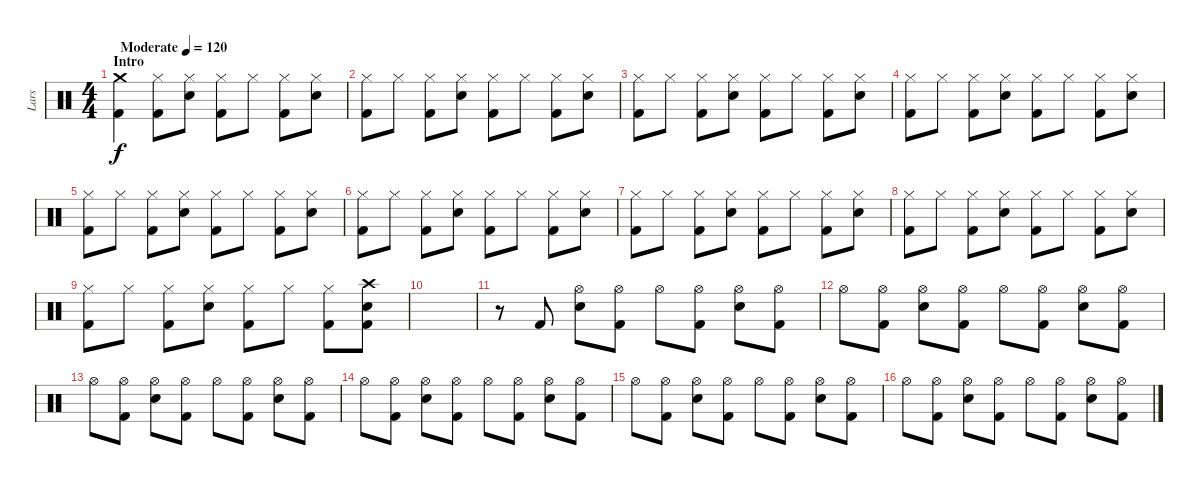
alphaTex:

\track ("Lars" "Lars") {instrument percussion}
\staff {score}
\articulation defaults
\ts (4 4)
\section ("" "Intro")
\tempo (120 "Moderate")
\clef neutral
\ks c
("Kick (hit) 2" "Crash medium (hit)").4{dy f} ("Kick (hit) 2" "Hi-Hat (closed)").8 ("Hi-Hat (closed)" "Electric Snare (hit)").8 ("Kick (hit) 2" "Hi-Hat (closed)").8 "Hi-Hat (closed)".8 ("Kick (hit) 2" "Hi-Hat (closed)").8 ("Electric Snare (hit)" "Hi-Hat (closed)").8 |
("Kick (hit) 2" "Hi-Hat (closed)").8 "Hi-Hat (closed)".8 ("Kick (hit) 2" "Hi-Hat (closed)").8 ("Electric Snare (hit)" "Hi-Hat (closed)").8 ("Kick (hit) 2" "Hi-Hat (closed)").8 "Hi-Hat (closed)".8 ("Kick (hit) 2" "Hi-Hat (closed)").8 ("Electric Snare (hit)" "Hi-Hat (closed)").8 |
("Kick (hit) 2" "Hi-Hat (closed)").8 "Hi-Hat (closed)".8 ("Kick (hit) 2" "Hi-Hat (closed)").8 ("Electric Snare (hit)" "Hi-Hat (closed)").8 ("Kick (hit) 2" "Hi-Hat (closed)").8 "Hi-Hat (closed)".8 ("Kick (hit) 2" "Hi-Hat (closed)").8 ("Electric Snare (hit)" "Hi-Hat (closed)").8 |
("Kick (hit) 2" "Hi-Hat (closed)").8 "Hi-Hat (closed)".8 ("Kick (hit) 2" "Hi-Hat (closed)").8 ("Electric Snare (hit)" "Hi-Hat (closed)").8 ("Kick (hit) 2" "Hi-Hat (closed)").8 "Hi-Hat (closed)".8 ("Kick (hit) 2" "Hi-Hat (closed)").8 ("Electric Snare (hit)" "Hi-Hat (closed)").8 |
("Kick (hit) 2" "Hi-Hat (closed)").8 "Hi-Hat (closed)".8 ("Kick (hit) 2" "Hi-Hat (closed)").8 ("Electric Snare (hit)" "Hi-Hat (closed)").8 ("Kick (hit) 2" "Hi-Hat (closed)").8 "Hi-Hat (closed)".8 ("Kick (hit) 2" "Hi-Hat (closed)").8 ("Electric Snare (hit)" "Hi-Hat (closed)").8 |
("Kick (hit) 2" "Hi-Hat (closed)").8 "Hi-Hat (closed)".8 ("Kick (hit) 2" "Hi-Hat (closed)").8 ("Electric Snare (hit)" "Hi-Hat (closed)").8 ("Kick (hit) 2" "Hi-Hat (closed)").8 "Hi-Hat (closed)".8 ("Kick (hit) 2" "Hi-Hat (closed)").8 ("Electric Snare (hit)" "Hi-Hat (closed)").8 |
("Kick (hit) 2" "Hi-Hat (closed)").8 "Hi-Hat (closed)".8 ("Kick (hit) 2" "Hi-Hat (closed)").8 ("Electric Snare (hit)" "Hi-Hat (closed)").8 ("Kick (hit) 2" "Hi-Hat (closed)").8 "Hi-Hat (closed)".8 ("Kick (hit) 2" "Hi-Hat (closed)").8 ("Electric Snare (hit)" "Hi-Hat (closed)").8 |
("Kick (hit) 2" "Hi-Hat (closed)").8 "Hi-Hat (closed)".8 ("Kick (hit) 2" "Hi-Hat (closed)").8 ("Electric Snare (hit)" "Hi-Hat (closed)").8 ("Kick (hit) 2" "Hi-Hat (closed)").8 "Hi-Hat (closed)".8 ("Kick (hit) 2" "Hi-Hat (closed)").8 ("Electric Snare (hit)" "Hi-Hat (closed)").8 |
("Kick (hit) 2" "Hi-Hat (closed)").8 "Hi-Hat (closed)".8 ("Kick (hit) 2" "Hi-Hat (closed)").8 ("Electric Snare (hit)" "Hi-Hat (closed)").8 ("Kick (hit) 2" "Hi-Hat (closed)").8 "Hi-Hat (closed)".8 ("Kick (hit) 2" "Hi-Hat (closed)").8 ("Kick (hit) 2" "Electric Snare (hit)" "Crash high (hit)").8 |
|
r.8 "Kick (hit) 2".8 ("Snare (hit) 2" "Hi-Hat (open)").8 ("Kick (hit) 2" "Hi-Hat (open)").8 "Hi-Hat (open)".8 ("Kick (hit) 2" "Hi-Hat (open)").8 ("Snare (hit) 2" "Hi-Hat (open)").8 ("Kick (hit) 2" "Hi-Hat (open)").8 |
"Hi-Hat (open)".8 ("Kick (hit) 2" "Hi-Hat (open)").8 ("Snare (hit) 2" "Hi-Hat (open)").8 ("Kick (hit) 2" "Hi-Hat (open)").8 "Hi-Hat (open)".8 ("Kick (hit) 2" "Hi-Hat (open)").8 ("Snare (hit) 2" "Hi-Hat (open)").8 ("Kick (hit) 2" "Hi-Hat (open)").8 |
"Hi-Hat (open)".8 ("Kick (hit) 2" "Hi-Hat (open)").8 ("Snare (hit) 2" "Hi-Hat (open)").8 ("Kick (hit) 2" "Hi-Hat (open)").8 "Hi-Hat (open)".8 ("Kick (hit) 2" "Hi-Hat (open)").8 ("Snare (hit) 2" "Hi-Hat (open)").8 ("Kick (hit) 2" "Hi-Hat (open)").8 |
"Hi-Hat (open)".8 ("Kick (hit) 2" "Hi-Hat (open)").8 ("Snare (hit) 2" "Hi-Hat (open)").8 ("Kick (hit) 2" "Hi-Hat (open)").8 "Hi-Hat (open)".8 ("Kick (hit) 2" "Hi-Hat (open)").8 ("Snare (hit) 2" "Hi-Hat (open)").8 ("Kick (hit) 2" "Hi-Hat (open)").8 |
"Hi-Hat (open)".8 ("Kick (hit) 2" "Hi-Hat (open)").8 ("Snare (hit) 2" "Hi-Hat (open)").8 ("Kick (hit) 2" "Hi-Hat (open)").8 "Hi-Hat (open)".8 ("Kick (hit) 2" "Hi-Hat (open)").8 ("Snare (hit) 2" "Hi-Hat (open)").8 ("Kick (hit) 2" "Hi-Hat (open)").8 |
"Hi-Hat (open)".8 ("Kick (hit) 2" "Hi-Hat (open)").8 ("Snare (hit) 2" "Hi-Hat (open)").8 ("Kick (hit) 2" "Hi-Hat (open)").8 "Hi-Hat (open)".8 ("Kick (hit) 2" "Hi-Hat (open)").8 ("Snare (hit) 2" "Hi-Hat (open)").8 ("Kick (hit) 2" "Hi-Hat (open)").8
